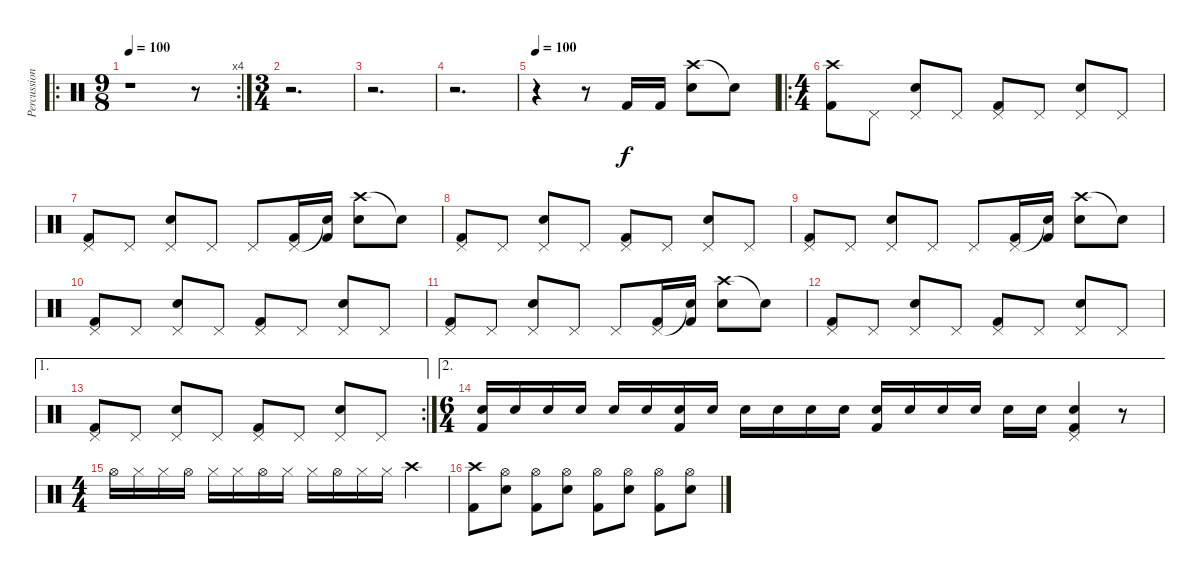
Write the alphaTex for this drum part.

\track ("Percussions" "Percussion") {instrument percussion}
\staff {score}
\articulation defaults
\ro
\rc 4
\ts (9 8)
\tempo 100
\clef neutral
\ks c
r.1{dy f} r.8 |
\ts (3 4)
r.2{d} |
r.2{d} |
r.2{d} |
\tempo 100
r.4 r.8 "Kick (hit) 2".16 "Kick (hit) 2".16 ("Crash high (hit)" "Snare (hit) 2").8 "Snare (hit)"{t}.8 |
\ro
\ts (4 4)
("Crash high (hit)" "Kick (hit) 2").8 "Pedal Hi-Hat (hit)".8 ("Pedal Hi-Hat (hit)" "Snare (hit) 2").8 "Pedal Hi-Hat (hit)".8 ("Pedal Hi-Hat (hit)" "Kick (hit) 2").8 "Pedal Hi-Hat (hit)".8 ("Pedal Hi-Hat (hit)" "Snare (hit) 2").8 "Pedal Hi-Hat (hit)".8 |
("Pedal Hi-Hat (hit)" "Kick (hit) 2").8 "Pedal Hi-Hat (hit)".8 ("Pedal Hi-Hat (hit)" "Snare (hit) 2").8 "Pedal Hi-Hat (hit)".8 "Pedal Hi-Hat (hit)".8 ("Pedal Hi-Hat (hit)" "Kick (hit) 2").16 ("Snare (hit)"{t} "Kick (hit) 2").16 ("Crash high (hit)" "Snare (hit) 2").8 "Snare (hit)"{t}.8 |
("Pedal Hi-Hat (hit)" "Kick (hit) 2").8 "Pedal Hi-Hat (hit)".8 ("Pedal Hi-Hat (hit)" "Snare (hit) 2").8 "Pedal Hi-Hat (hit)".8 ("Pedal Hi-Hat (hit)" "Kick (hit) 2").8 "Pedal Hi-Hat (hit)".8 ("Pedal Hi-Hat (hit)" "Snare (hit) 2").8 "Pedal Hi-Hat (hit)".8 |
("Pedal Hi-Hat (hit)" "Kick (hit) 2").8 "Pedal Hi-Hat (hit)".8 ("Pedal Hi-Hat (hit)" "Snare (hit) 2").8 "Pedal Hi-Hat (hit)".8 "Pedal Hi-Hat (hit)".8 ("Pedal Hi-Hat (hit)" "Kick (hit) 2").16 ("Snare (hit)"{t} "Kick (hit) 2").16 ("Crash high (hit)" "Snare (hit) 2").8 "Snare (hit)"{t}.8 |
("Pedal Hi-Hat (hit)" "Kick (hit) 2").8 "Pedal Hi-Hat (hit)".8 ("Pedal Hi-Hat (hit)" "Snare (hit) 2").8 "Pedal Hi-Hat (hit)".8 ("Pedal Hi-Hat (hit)" "Kick (hit) 2").8 "Pedal Hi-Hat (hit)".8 ("Pedal Hi-Hat (hit)" "Snare (hit) 2").8 "Pedal Hi-Hat (hit)".8 |
("Pedal Hi-Hat (hit)" "Kick (hit) 2").8 "Pedal Hi-Hat (hit)".8 ("Pedal Hi-Hat (hit)" "Snare (hit) 2").8 "Pedal Hi-Hat (hit)".8 "Pedal Hi-Hat (hit)".8 ("Pedal Hi-Hat (hit)" "Kick (hit) 2").16 ("Snare (hit)"{t} "Kick (hit) 2").16 ("Crash high (hit)" "Snare (hit) 2").8 "Snare (hit)"{t}.8 |
("Pedal Hi-Hat (hit)" "Kick (hit) 2").8 "Pedal Hi-Hat (hit)".8 ("Pedal Hi-Hat (hit)" "Snare (hit) 2").8 "Pedal Hi-Hat (hit)".8 ("Pedal Hi-Hat (hit)" "Kick (hit) 2").8 "Pedal Hi-Hat (hit)".8 ("Pedal Hi-Hat (hit)" "Snare (hit) 2").8 "Pedal Hi-Hat (hit)".8 |
\ae 1
\rc 2
("Pedal Hi-Hat (hit)" "Kick (hit) 2").8 "Pedal Hi-Hat (hit)".8 ("Pedal Hi-Hat (hit)" "Snare (hit) 2").8 "Pedal Hi-Hat (hit)".8 ("Pedal Hi-Hat (hit)" "Kick (hit) 2").8 "Pedal Hi-Hat (hit)".8 ("Pedal Hi-Hat (hit)" "Snare (hit) 2").8 "Pedal Hi-Hat (hit)".8 |
\ae 2
\ts (6 4)
("Snare (hit) 2" "Kick (hit) 2").16 "Snare (hit) 2".16 "Snare (hit) 2".16 "Snare (hit) 2".16 "Snare (hit) 2".16 "Snare (hit) 2".16 ("Snare (hit) 2" "Kick (hit) 2").16 "Snare (hit) 2".16 "Snare (hit) 2".16 "Snare (hit) 2".16 "Snare (hit) 2".16 "Snare (hit) 2".16 ("Snare (hit) 2" "Kick (hit) 2").16 "Snare (hit) 2".16 "Snare (hit) 2".16 "Snare (hit) 2".16 "Snare (hit) 2".16 "Snare (hit) 2".16 ("Pedal Hi-Hat (hit)" "Snare (hit) 2" "Kick (hit) 2").4 r.8 |
\ts (4 4)
"Hi-Hat (open)".16 "Hi-Hat (closed)".16 "Hi-Hat (closed)".16 "Hi-Hat (open)".16 "Hi-Hat (closed)".16 "Hi-Hat (closed)".16 "Hi-Hat (open)".16 "Hi-Hat (closed)".16 "Hi-Hat (closed)".16 "Hi-Hat (open)".16 "Hi-Hat (closed)".16 "Hi-Hat (closed)".16 "Crash high (hit)".4 |
("Crash high (hit)" "Kick (hit) 2").8 ("Hi-Hat (open)" "Snare (hit) 2").8 ("Hi-Hat (open)" "Kick (hit) 2").8 ("Hi-Hat (open)" "Snare (hit) 2").8 ("Hi-Hat (open)" "Kick (hit) 2").8 ("Hi-Hat (open)" "Snare (hit) 2").8 ("Hi-Hat (open)" "Kick (hit) 2").8 ("Hi-Hat (open)" "Snare (hit) 2").8
